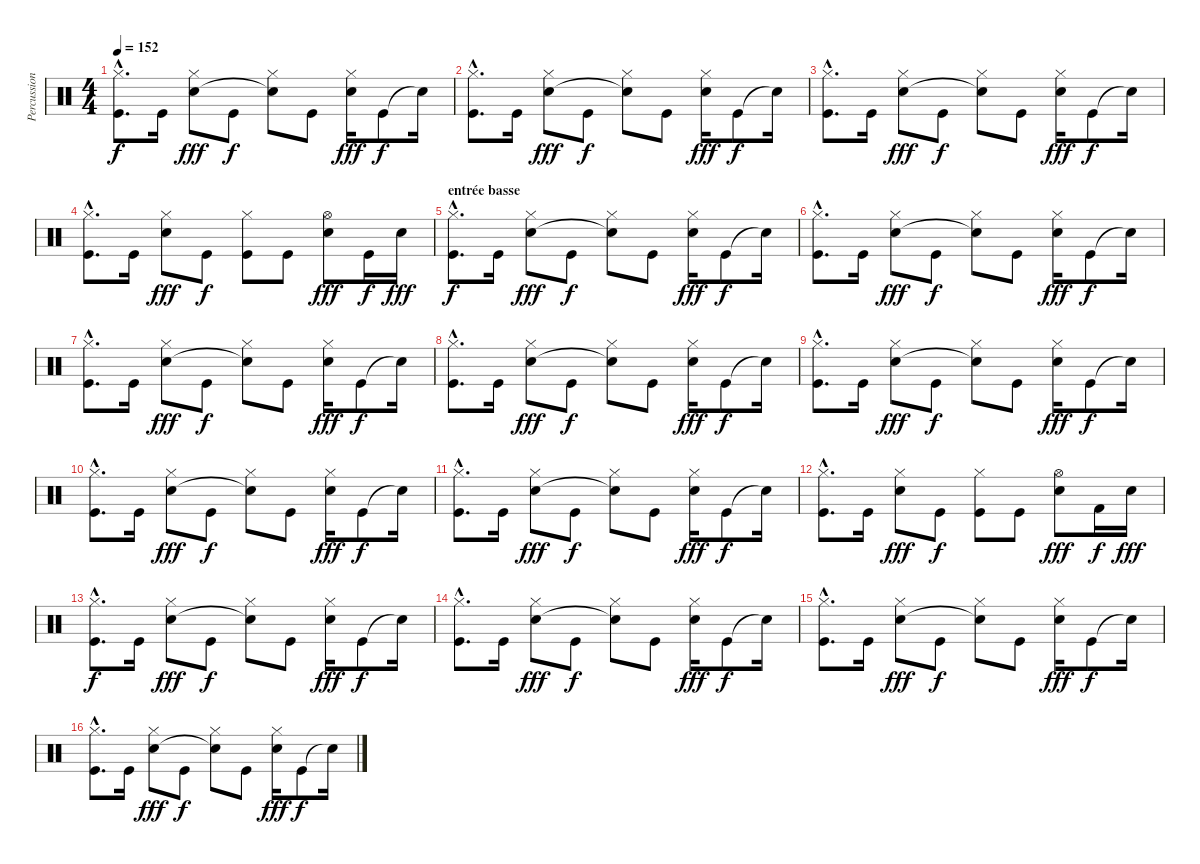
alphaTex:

\track ("Percussions" "Percussion") {instrument percussion}
\staff {score}
\articulation defaults
\ts (4 4)
\tempo 152
\clef neutral
\ks c
("Hi-Hat (closed)"{hac} "Kick (hit)"{hac}).8{d dy f} "Kick (hit)".16 ("Hi-Hat (closed)" "Snare (hit) 2").8{dy fff} "Kick (hit)".8{dy f} ("Hi-Hat (closed)" "Snare (hit)"{t}).8 "Kick (hit)".8 ("Hi-Hat (closed)" "Snare (hit) 2").16{dy fff} "Kick (hit)".8{dy f} "Snare (hit)"{t}.16 |
("Hi-Hat (closed)"{hac} "Kick (hit)"{hac}).8{d} "Kick (hit)".16 ("Hi-Hat (closed)" "Snare (hit) 2").8{dy fff} "Kick (hit)".8{dy f} ("Hi-Hat (closed)" "Snare (hit)"{t}).8 "Kick (hit)".8 ("Hi-Hat (closed)" "Snare (hit) 2").16{dy fff} "Kick (hit)".8{dy f} "Snare (hit)"{t}.16 |
("Hi-Hat (closed)"{hac} "Kick (hit)"{hac}).8{d} "Kick (hit)".16 ("Hi-Hat (closed)" "Snare (hit) 2").8{dy fff} "Kick (hit)".8{dy f} ("Hi-Hat (closed)" "Snare (hit)"{t}).8 "Kick (hit)".8 ("Hi-Hat (closed)" "Snare (hit) 2").16{dy fff} "Kick (hit)".8{dy f} "Snare (hit)"{t}.16 |
("Hi-Hat (closed)"{hac} "Kick (hit)"{hac}).8{d} "Kick (hit)".16 ("Hi-Hat (closed)" "Snare (hit) 2").8{dy fff} "Kick (hit)".8{dy f} ("Hi-Hat (closed)" "Kick (hit)").8 "Kick (hit)".8 ("Hi-Hat (open)" "Snare (hit) 2").8{dy fff} "Kick (hit)".16{dy f} "Snare (hit) 2".16{dy fff} |
\section ("" "entrée basse")
("Hi-Hat (closed)"{hac} "Kick (hit)"{hac}).8{d dy f} "Kick (hit)".16 ("Hi-Hat (closed)" "Snare (hit) 2").8{dy fff} "Kick (hit)".8{dy f} ("Hi-Hat (closed)" "Snare (hit)"{t}).8 "Kick (hit)".8 ("Hi-Hat (closed)" "Snare (hit) 2").16{dy fff} "Kick (hit)".8{dy f} "Snare (hit)"{t}.16 |
("Hi-Hat (closed)"{hac} "Kick (hit)"{hac}).8{d} "Kick (hit)".16 ("Hi-Hat (closed)" "Snare (hit) 2").8{dy fff} "Kick (hit)".8{dy f} ("Hi-Hat (closed)" "Snare (hit)"{t}).8 "Kick (hit)".8 ("Hi-Hat (closed)" "Snare (hit) 2").16{dy fff} "Kick (hit)".8{dy f} "Snare (hit)"{t}.16 |
("Hi-Hat (closed)"{hac} "Kick (hit)"{hac}).8{d} "Kick (hit)".16 ("Hi-Hat (closed)" "Snare (hit) 2").8{dy fff} "Kick (hit)".8{dy f} ("Hi-Hat (closed)" "Snare (hit)"{t}).8 "Kick (hit)".8 ("Hi-Hat (closed)" "Snare (hit) 2").16{dy fff} "Kick (hit)".8{dy f} "Snare (hit)"{t}.16 |
("Hi-Hat (closed)"{hac} "Kick (hit)"{hac}).8{d} "Kick (hit)".16 ("Hi-Hat (closed)" "Snare (hit) 2").8{dy fff} "Kick (hit)".8{dy f} ("Hi-Hat (closed)" "Snare (hit)"{t}).8 "Kick (hit)".8 ("Hi-Hat (closed)" "Snare (hit) 2").16{dy fff} "Kick (hit)".8{dy f} "Snare (hit)"{t}.16 |
("Hi-Hat (closed)"{hac} "Kick (hit)"{hac}).8{d} "Kick (hit)".16 ("Hi-Hat (closed)" "Snare (hit) 2").8{dy fff} "Kick (hit)".8{dy f} ("Hi-Hat (closed)" "Snare (hit)"{t}).8 "Kick (hit)".8 ("Hi-Hat (closed)" "Snare (hit) 2").16{dy fff} "Kick (hit)".8{dy f} "Snare (hit)"{t}.16 |
("Hi-Hat (closed)"{hac} "Kick (hit)"{hac}).8{d} "Kick (hit)".16 ("Hi-Hat (closed)" "Snare (hit) 2").8{dy fff} "Kick (hit)".8{dy f} ("Hi-Hat (closed)" "Snare (hit)"{t}).8 "Kick (hit)".8 ("Hi-Hat (closed)" "Snare (hit) 2").16{dy fff} "Kick (hit)".8{dy f} "Snare (hit)"{t}.16 |
("Hi-Hat (closed)"{hac} "Kick (hit)"{hac}).8{d} "Kick (hit)".16 ("Hi-Hat (closed)" "Snare (hit) 2").8{dy fff} "Kick (hit)".8{dy f} ("Hi-Hat (closed)" "Snare (hit)"{t}).8 "Kick (hit)".8 ("Hi-Hat (closed)" "Snare (hit) 2").16{dy fff} "Kick (hit)".8{dy f} "Snare (hit)"{t}.16 |
("Hi-Hat (closed)"{hac} "Kick (hit)"{hac}).8{d} "Kick (hit)".16 ("Hi-Hat (closed)" "Snare (hit) 2").8{dy fff} "Kick (hit)".8{dy f} ("Hi-Hat (closed)" "Kick (hit)").8 "Kick (hit)".8 ("Hi-Hat (open)" "Snare (hit) 2").8{dy fff} "Kick (hit) 2".16{dy f} "Snare (hit) 2".16{dy fff} |
("Hi-Hat (closed)"{hac} "Kick (hit)"{hac}).8{d dy f} "Kick (hit)".16 ("Hi-Hat (closed)" "Snare (hit) 2").8{dy fff} "Kick (hit)".8{dy f} ("Hi-Hat (closed)" "Snare (hit)"{t}).8 "Kick (hit)".8 ("Hi-Hat (closed)" "Snare (hit) 2").16{dy fff} "Kick (hit)".8{dy f} "Snare (hit)"{t}.16 |
("Hi-Hat (closed)"{hac} "Kick (hit)"{hac}).8{d} "Kick (hit)".16 ("Hi-Hat (closed)" "Snare (hit) 2").8{dy fff} "Kick (hit)".8{dy f} ("Hi-Hat (closed)" "Snare (hit)"{t}).8 "Kick (hit)".8 ("Hi-Hat (closed)" "Snare (hit) 2").16{dy fff} "Kick (hit)".8{dy f} "Snare (hit)"{t}.16 |
("Hi-Hat (closed)"{hac} "Kick (hit)"{hac}).8{d} "Kick (hit)".16 ("Hi-Hat (closed)" "Snare (hit) 2").8{dy fff} "Kick (hit)".8{dy f} ("Hi-Hat (closed)" "Snare (hit)"{t}).8 "Kick (hit)".8 ("Hi-Hat (closed)" "Snare (hit) 2").16{dy fff} "Kick (hit)".8{dy f} "Snare (hit)"{t}.16 |
("Hi-Hat (closed)"{hac} "Kick (hit)"{hac}).8{d} "Kick (hit)".16 ("Hi-Hat (closed)" "Snare (hit) 2").8{dy fff} "Kick (hit)".8{dy f} ("Hi-Hat (closed)" "Snare (hit)"{t}).8 "Kick (hit)".8 ("Hi-Hat (closed)" "Snare (hit) 2").16{dy fff} "Kick (hit)".8{dy f} "Snare (hit)"{t}.16
